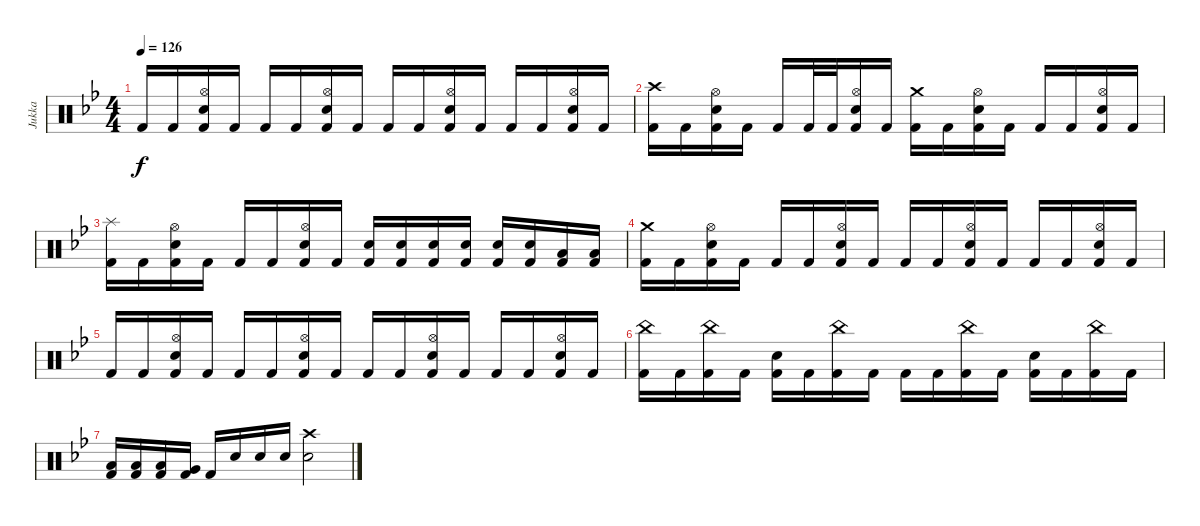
\track ("Jukka" "Jukka") {instrument percussion}
\staff {score}
\articulation defaults
\ts (4 4)
\tempo 126
\clef neutral
\ks gminor "Kick (hit) 2".16{dy f} "Kick (hit) 2".16
("Hi-Hat (open)" "Electric Snare (hit)" "Kick (hit) 2").16 "Kick (hit) 2".16 "Kick (hit) 2".16 "Kick (hit) 2".16 ("Hi-Hat (open)" "Electric Snare (hit)" "Kick (hit) 2").16 "Kick (hit) 2".16 "Kick (hit) 2".16 "Kick (hit) 2".16 ("Hi-Hat (open)" "Electric Snare (hit)" "Kick (hit) 2").16 "Kick (hit) 2".16 "Kick (hit) 2".16 "Kick (hit) 2".16 ("Hi-Hat (open)" "Electric Snare (hit)" "Kick (hit) 2").16 "Kick (hit) 2".16 |
("Crash high (hit)" "Kick (hit) 2").16 "Kick (hit) 2".16 ("Hi-Hat (open)" "Electric Snare (hit)" "Kick (hit) 2").16 "Kick (hit) 2".16 "Kick (hit) 2".16 "Kick (hit) 2".32 "Kick (hit) 2".32 ("Hi-Hat (open)" "Electric Snare (hit)" "Kick (hit) 2").16 "Kick (hit) 2".16 ("Crash medium (hit)" "Kick (hit) 2").16 "Kick (hit) 2".16 ("Hi-Hat (open)" "Electric Snare (hit)" "Kick (hit) 2").16 "Kick (hit) 2".16 "Kick (hit) 2".16 "Kick (hit) 2".16 ("Hi-Hat (open)" "Electric Snare (hit)" "Kick (hit) 2").16 "Kick (hit) 2".16 |
("Splash (hit)" "Kick (hit) 2").16 "Kick (hit) 2".16 ("Hi-Hat (open)" "Electric Snare (hit)" "Kick (hit) 2").16 "Kick (hit) 2".16 "Kick (hit) 2".16 "Kick (hit) 2".16 ("Hi-Hat (open)" "Electric Snare (hit)" "Kick (hit) 2").16 "Kick (hit) 2".16 ("Electric Snare (hit)" "Kick (hit) 2").16 ("Electric Snare (hit)" "Kick (hit) 2").16 ("Electric Snare (hit)" "Kick (hit) 2").16 ("Electric Snare (hit)" "Kick (hit) 2").16 ("Electric Snare (hit)" "Kick (hit) 2").16 ("Electric Snare (hit)" "Kick (hit) 2").16 ("Low Tom (hit)" "Kick (hit) 2").16 ("Low Tom (hit)" "Kick (hit) 2").16 |
("Crash medium (hit)" "Kick (hit) 2").16 "Kick (hit) 2".16 ("Hi-Hat (open)" "Electric Snare (hit)" "Kick (hit) 2").16 "Kick (hit) 2".16 "Kick (hit) 2".16 "Kick (hit) 2".16 ("Hi-Hat (open)" "Electric Snare (hit)" "Kick (hit) 2").16 "Kick (hit) 2".16 "Kick (hit) 2".16 "Kick (hit) 2".16 ("Hi-Hat (open)" "Electric Snare (hit)" "Kick (hit) 2").16 "Kick (hit) 2".16 "Kick (hit) 2".16 "Kick (hit) 2".16 ("Hi-Hat (open)" "Electric Snare (hit)" "Kick (hit) 2").16 "Kick (hit) 2".16 |
"Kick (hit) 2".16 "Kick (hit) 2".16 ("Hi-Hat (open)" "Electric Snare (hit)" "Kick (hit) 2").16 "Kick (hit) 2".16 "Kick (hit) 2".16 "Kick (hit) 2".16 ("Hi-Hat (open)" "Electric Snare (hit)" "Kick (hit) 2").16 "Kick (hit) 2".16 "Kick (hit) 2".16 "Kick (hit) 2".16 ("Hi-Hat (open)" "Electric Snare (hit)" "Kick (hit) 2").16 "Kick (hit) 2".16 "Kick (hit) 2".16 "Kick (hit) 2".16 ("Hi-Hat (open)" "Electric Snare (hit)" "Kick (hit) 2").16 "Kick (hit) 2".16 |
("China (hit)" "Kick (hit) 2").16 "Kick (hit) 2".16 ("China (hit)" "Kick (hit) 2").16 "Kick (hit) 2".16 ("Electric Snare (hit)" "Kick (hit) 2").16 "Kick (hit) 2".16 ("China (hit)" "Kick (hit) 2").16 "Kick (hit) 2".16 "Kick (hit) 2".16 "Kick (hit) 2".16 ("China (hit)" "Kick (hit) 2").16 "Kick (hit) 2".16 ("Electric Snare (hit)" "Kick (hit) 2").16 "Kick (hit) 2".16 ("China (hit)" "Kick (hit) 2").16 "Kick (hit) 2".16 |
("Low Tom (hit)" "Kick (hit) 2").16 ("Low Tom (hit)" "Kick (hit) 2").16 ("Low Tom (hit)" "Kick (hit) 2").16 ("Very Low Tom (hit)" "Kick (hit) 2").16 "Kick (hit) 2".16 "Electric Snare (hit)".16 "Electric Snare (hit)".16 "Electric Snare (hit)".16 ("Crash high (hit)" "Electric Snare (hit)").2
